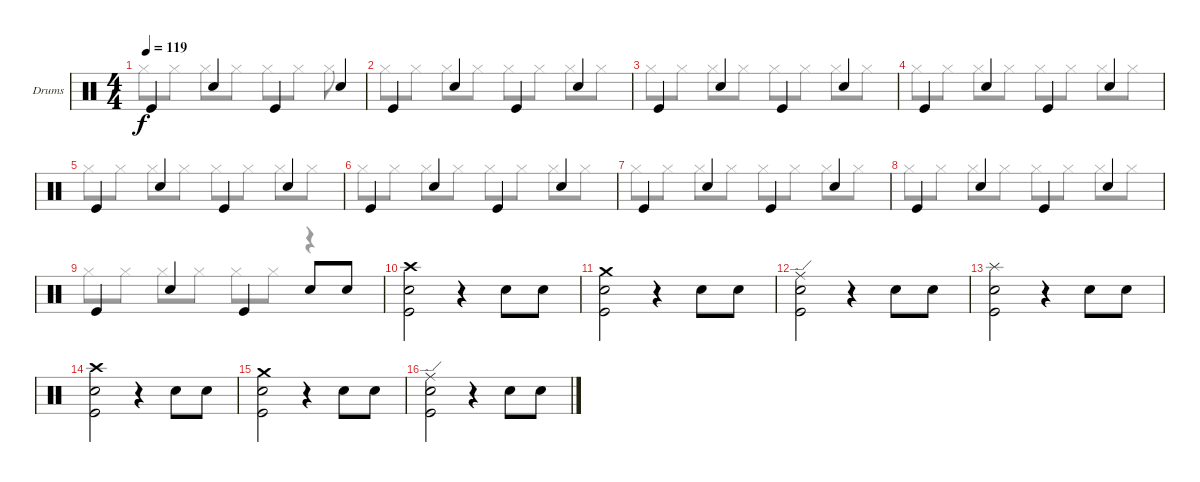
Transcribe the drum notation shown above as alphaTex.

\defaultSystemsLayout 4
\bracketExtendMode groupsimilarinstruments
\firstSystemTrackNameOrientation horizontal
\otherSystemsTrackNameOrientation horizontal
\track ("Drumkit" "Drums") {instrument percussion}
\staff {score}
\articulation defaults
\voice
\ts (4 4)
\tempo 119
\clef neutral
\ks c "Kick (hit)".4{dy f} "Snare (hit) 2".4 "Kick (hit)".4 "Snare (hit) 2".4
|
"Kick (hit)".4 "Snare (hit) 2".4 "Kick (hit)".4 "Snare (hit) 2".4 |
"Kick (hit)".4 "Snare (hit) 2".4 "Kick (hit)".4 "Snare (hit) 2".4 |
"Kick (hit)".4 "Snare (hit) 2".4 "Kick (hit)".4 "Snare (hit) 2".4 |
"Kick (hit)".4 "Snare (hit) 2".4 "Kick (hit)".4 "Snare (hit) 2".4 |
"Kick (hit)".4 "Snare (hit) 2".4 "Kick (hit)".4 "Snare (hit) 2".4 |
"Kick (hit)".4 "Snare (hit) 2".4 "Kick (hit)".4 "Snare (hit) 2".4 |
"Kick (hit)".4 "Snare (hit) 2".4 "Kick (hit)".4 "Snare (hit) 2".4 |
"Kick (hit)".4 "Snare (hit) 2".4 "Kick (hit)".4 "Snare (hit) 2".8 "Snare (hit) 2".8 |
("Snare (hit) 2" "Kick (hit)" "Crash high (hit)").2 r.4 "Snare (hit) 2".8 "Snare (hit) 2".8 |
("Snare (hit) 2" "Kick (hit)" "Crash medium (hit)").2 r.4 "Snare (hit) 2".8 "Snare (hit) 2".8 |
("Snare (hit) 2" "Kick (hit)" "Ride (edge)").2 r.4 "Snare (hit) 2".8 "Snare (hit) 2".8 |
("Snare (hit) 2" "Kick (hit)" "Splash (hit)").2 r.4 "Snare (hit) 2".8 "Snare (hit) 2".8 |
("Snare (hit) 2" "Kick (hit)" "Crash high (hit)").2 r.4 "Snare (hit) 2".8 "Snare (hit) 2".8 |
("Snare (hit) 2" "Kick (hit)" "Crash medium (hit)").2 r.4 "Snare (hit) 2".8 "Snare (hit) 2".8 |
("Snare (hit) 2" "Kick (hit)" "Ride (edge)").2 r.4 "Snare (hit) 2".8 "Snare (hit) 2".8
\voice
\clef neutral
\ottava regular
\simile none
\ks c "Hi-Hat (closed)".8{dy f} "Hi-Hat (closed)".8 "Hi-Hat (closed)".8 "Hi-Hat (closed)".8 "Hi-Hat (closed)".8 "Hi-Hat (closed)".8 "Hi-Hat (closed)".8
|
"Hi-Hat (closed)".8 "Hi-Hat (closed)".8 "Hi-Hat (closed)".8 "Hi-Hat (closed)".8 "Hi-Hat (closed)".8 "Hi-Hat (closed)".8 "Hi-Hat (closed)".8 "Hi-Hat (closed)".8 |
"Hi-Hat (closed)".8 "Hi-Hat (closed)".8 "Hi-Hat (closed)".8 "Hi-Hat (closed)".8 "Hi-Hat (closed)".8 "Hi-Hat (closed)".8 "Hi-Hat (closed)".8 "Hi-Hat (closed)".8 |
"Hi-Hat (closed)".8 "Hi-Hat (closed)".8 "Hi-Hat (closed)".8 "Hi-Hat (closed)".8 "Hi-Hat (closed)".8 "Hi-Hat (closed)".8 "Hi-Hat (closed)".8 "Hi-Hat (closed)".8 |
"Hi-Hat (closed)".8 "Hi-Hat (closed)".8 "Hi-Hat (closed)".8 "Hi-Hat (closed)".8 "Hi-Hat (closed)".8 "Hi-Hat (closed)".8 "Hi-Hat (closed)".8 "Hi-Hat (closed)".8 |
"Hi-Hat (closed)".8 "Hi-Hat (closed)".8 "Hi-Hat (closed)".8 "Hi-Hat (closed)".8 "Hi-Hat (closed)".8 "Hi-Hat (closed)".8 "Hi-Hat (closed)".8 "Hi-Hat (closed)".8 |
"Hi-Hat (closed)".8 "Hi-Hat (closed)".8 "Hi-Hat (closed)".8 "Hi-Hat (closed)".8 "Hi-Hat (closed)".8 "Hi-Hat (closed)".8 "Hi-Hat (closed)".8 "Hi-Hat (closed)".8 |
"Hi-Hat (closed)".8 "Hi-Hat (closed)".8 "Hi-Hat (closed)".8 "Hi-Hat (closed)".8 "Hi-Hat (closed)".8 "Hi-Hat (closed)".8 "Hi-Hat (closed)".8 "Hi-Hat (closed)".8 |
"Hi-Hat (closed)".8 "Hi-Hat (closed)".8 "Hi-Hat (closed)".8 "Hi-Hat (closed)".8 "Hi-Hat (closed)".8 "Hi-Hat (closed)".8 r.4 |
|
|
|
|
|
|
